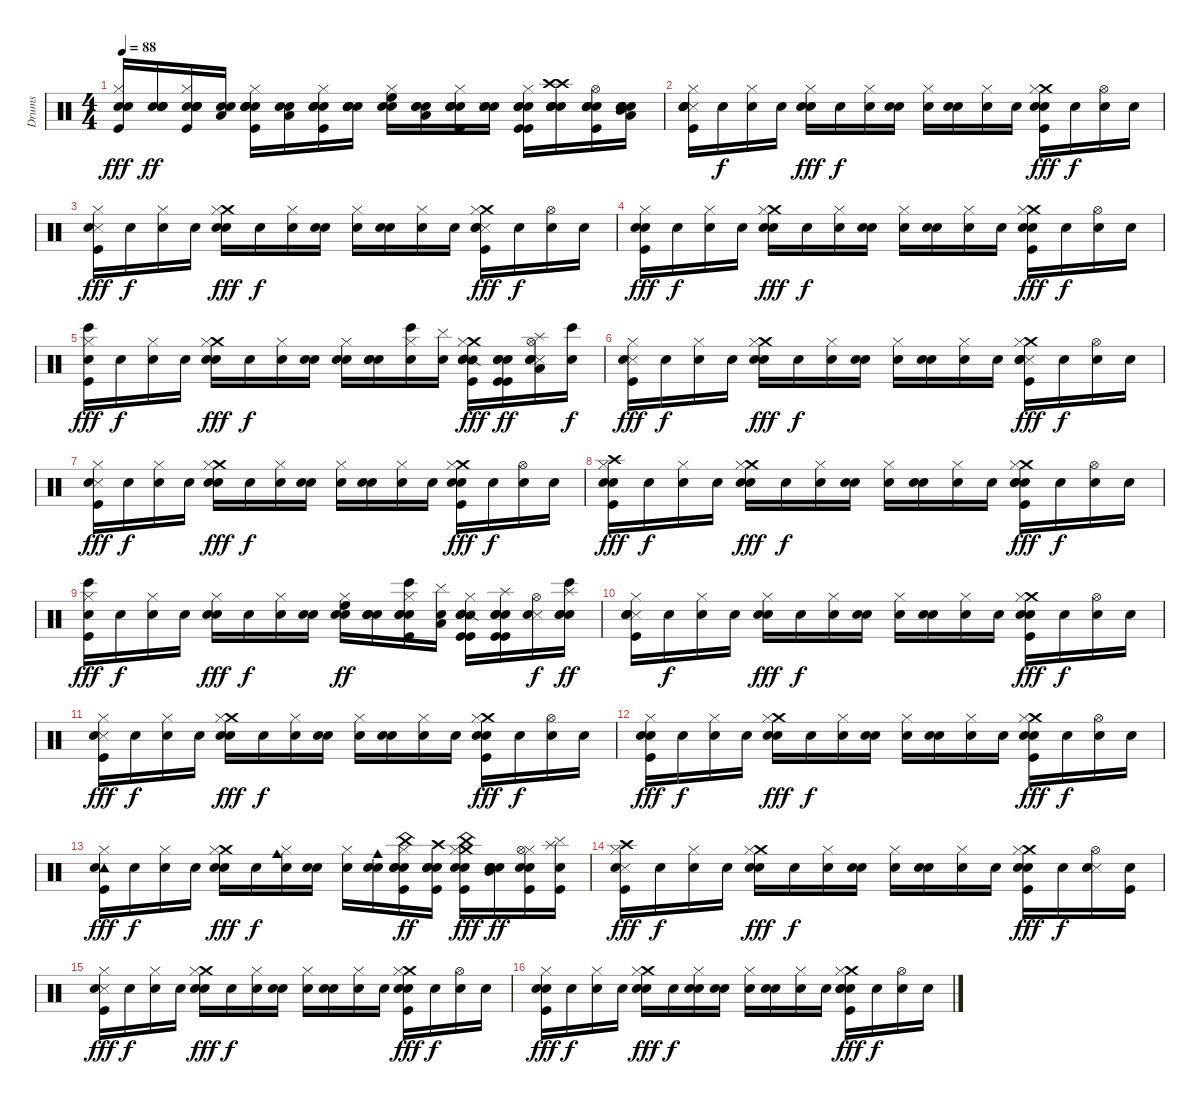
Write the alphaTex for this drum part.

\track ("Drums" "Drums") {instrument percussion}
\staff {score}
\articulation defaults
\ts (4 4)
\tempo 88
\clef neutral
\ks c
("Snare (hit) 2" "Snare (hit) 2" "Hi-Hat (closed)" "Kick (hit)").16{dy fff} ("Snare (hit) 2" "Snare (hit) 2" "Snare (hit) 2" "Electric Snare (hit)").16{dy ff} ("Snare (hit) 2" "Snare (hit) 2" "Hi-Hat (closed)" "Kick (hit)" "Snare (hit) 2" "Electric Snare (hit)").16 ("Snare (hit) 2" "Snare (hit) 2" "Low Tom (hit)").16 ("Snare (hit) 2" "Snare (hit) 2" "Hand Clap (hit)" "Hi-Hat (closed)" "Kick (hit)" "Snare (hit) 2").16 ("Snare (hit) 2" "Snare (hit) 2" "Low Tom (hit)").16 ("Snare (hit) 2" "Snare (hit) 2" "Hi-Hat (closed)" "Kick (hit)" "Snare (hit) 2" "Electric Snare (hit)").16 ("Snare (hit) 2" "Snare (hit) 2" "Hand Clap (hit)" "Snare (hit) 2" "Electric Snare (hit)").16 ("Snare (hit) 2" "Snare (hit) 2" "High Floor Tom (hit)" "Hi-Hat (closed)").16 ("Snare (hit) 2" "Snare (hit) 2" "Hand Clap (hit)" "Low Tom (hit)").16 ("Snare (hit) 2" "Snare (hit) 2" "Hi-Hat (closed)" "Kick (hit)" "Snare (hit) 2" "Electric Snare (hit)").16 ("Snare (hit) 2" "Snare (hit) 2" "Snare (side stick) 3" "Snare (hit) 2").16 ("Snare (hit) 2" "Snare (hit) 2" "Electric Snare (hit)" "Hi-Hat (closed)" "Kick (hit)" "Kick (hit)").16 ("Snare (hit) 2" "Snare (hit) 2" "Snare (hit) 2" "Electric Snare (hit)" "Crash high (hit)" "Crash high (hit)").16 ("Snare (hit) 2" "Snare (hit) 2" "Hi-Hat (open)" "Kick (hit)" "Snare (hit) 2" "Electric Snare (hit)").16 ("Snare (hit) 2" "Snare (hit) 2" "Snare (hit) 2" "Electric Snare (hit)" "Mid Tom (hit)" "Low Tom (hit)").16 |
("Metronome (hit)" "Snare (hit) 2" "Hi-Hat (closed)" "Kick (hit)" "Snare (hit) 2" "Electric Snare (hit)").16{volume 12} "Snare (hit) 2".16{dy f} ("Snare (hit) 2" "Hi-Hat (closed)").16 "Snare (hit) 2".16 ("Snare (hit) 2" "Hand Clap (hit)" "Hi-Hat (closed)").16{dy fff} "Snare (hit) 2".16{dy f} ("Snare (hit) 2" "Hi-Hat (closed)").16 ("Snare (hit) 2" "Hand Clap (hit)").16 ("Snare (hit) 2" "Hi-Hat (closed)").16 ("Snare (hit) 2" "Hand Clap (hit)").16 ("Snare (hit) 2" "Hi-Hat (closed)").16 "Snare (hit) 2".16 ("Snare (hit) 2" "Electric Snare (hit)" "Crash medium (hit)" "Hi-Hat (closed)" "Kick (hit)").16{dy fff} "Snare (hit) 2".16{dy f} ("Snare (hit) 2" "Hi-Hat (open)").16 "Snare (hit) 2".16 |
("Snare (side stick) 3" "Snare (hit) 2" "Hi-Hat (closed)" "Kick (hit)").16{dy fff} "Snare (hit) 2".16{dy f} ("Snare (hit) 2" "Hi-Hat (closed)").16 "Snare (hit) 2".16 ("Snare (hit) 2" "Hand Clap (hit)" "Crash medium (hit)" "Hi-Hat (closed)").16{dy fff} "Snare (hit) 2".16{dy f} ("Snare (hit) 2" "Hi-Hat (closed)").16 ("Snare (hit) 2" "Hand Clap (hit)").16 ("Snare (hit) 2" "Hi-Hat (closed)").16 ("Snare (hit) 2" "Hand Clap (hit)").16 ("Snare (hit) 2" "Hi-Hat (closed)").16 "Snare (hit) 2".16 ("Snare (side stick) 3" "Snare (hit) 2" "Electric Snare (hit)" "Crash medium (hit)" "Hi-Hat (closed)" "Kick (hit)").16{dy fff} "Snare (hit) 2".16{dy f} ("Snare (hit) 2" "Hi-Hat (open)").16 "Snare (hit) 2".16 |
("Snare (hit) 2" "Snare (hit) 2" "Hi-Hat (closed)" "Kick (hit)").16{dy fff} "Snare (hit) 2".16{dy f} ("Snare (hit) 2" "Hi-Hat (closed)").16 "Snare (hit) 2".16 ("Snare (hit) 2" "Hand Clap (hit)" "Crash medium (hit)" "Hi-Hat (closed)").16{dy fff} "Snare (hit) 2".16{dy f} ("Snare (hit) 2" "Hi-Hat (closed)").16 ("Snare (hit) 2" "Hand Clap (hit)").16 ("Snare (hit) 2" "Hi-Hat (closed)").16 ("Snare (hit) 2" "Hand Clap (hit)").16 ("Snare (hit) 2" "Hi-Hat (closed)").16 "Snare (hit) 2".16 ("Snare (hit) 2" "Electric Snare (hit)" "Crash medium (hit)" "Hi-Hat (closed)" "Kick (hit)").16{dy fff} "Snare (hit) 2".16{dy f} ("Snare (hit) 2" "Hi-Hat (open)").16 "Snare (hit) 2".16 |
("Bongo High (hit)" "Snare (hit) 2" "Hi-Hat (closed)" "Kick (hit)").16{dy fff} "Snare (hit) 2".16{dy f} ("Snare (hit) 2" "Hi-Hat (closed)").16 "Snare (hit) 2".16 ("Snare (hit) 2" "Hand Clap (hit)" "Crash medium (hit)" "Hi-Hat (closed)").16{dy fff} "Snare (hit) 2".16{dy f} ("Snare (hit) 2" "Hi-Hat (closed)").16 ("Snare (hit) 2" "Hand Clap (hit)").16 ("Snare (hit)" "Snare (hit) 2" "Hi-Hat (closed)").16 ("Snare (hit)" "Snare (hit) 2" "Hand Clap (hit)").16 ("Bongo High (hit)" "Snare (hit) 2" "Hi-Hat (closed)").16 ("Cymbal (hit)" "Snare (hit) 2").16 ("Snare (side stick) 2" "Snare (hit) 2" "Electric Snare (hit)" "Crash medium (hit)" "Hi-Hat (closed)" "Kick (hit)").16{dy fff} ("Kick (hit)" "Snare (hit) 2" "Kick (hit)" "Snare (hit) 2" "Electric Snare (hit)").16{dy ff} ("Metronome (hit)" "Snare (hit) 2" "Hi-Hat (open)" "Snare (hit) 2" "Low Tom (hit)" "Splash (hit)").16 ("Bongo High (hit)" "Snare (hit) 2").16{dy f} |
("Metronome (hit)" "Snare (hit) 2" "Hi-Hat (closed)" "Kick (hit)").16{dy fff} "Snare (hit) 2".16{dy f} ("Snare (hit) 2" "Hi-Hat (closed)").16 "Snare (hit) 2".16 ("Snare (hit) 2" "Hand Clap (hit)" "Crash medium (hit)" "Hi-Hat (closed)").16{dy fff} "Snare (hit) 2".16{dy f} ("Snare (hit) 2" "Hi-Hat (closed)").16 ("Snare (hit) 2" "Hand Clap (hit)").16 ("Snare (hit) 2" "Hi-Hat (closed)").16 ("Snare (hit) 2" "Hand Clap (hit)").16 ("Snare (hit) 2" "Hi-Hat (closed)").16 "Snare (hit) 2".16 ("Metronome (hit)" "Snare (hit) 2" "Electric Snare (hit)" "Crash medium (hit)" "Hi-Hat (closed)" "Kick (hit)").16{dy fff} "Snare (hit) 2".16{dy f} ("Snare (hit) 2" "Hi-Hat (open)").16 "Snare (hit) 2".16 |
("Snare (side stick) 3" "Snare (hit) 2" "Hi-Hat (closed)" "Kick (hit)").16{dy fff} "Snare (hit) 2".16{dy f} ("Snare (hit) 2" "Hi-Hat (closed)").16 "Snare (hit) 2".16 ("Snare (hit) 2" "Hand Clap (hit)" "Crash medium (hit)" "Hi-Hat (closed)").16{dy fff} "Snare (hit) 2".16{dy f} ("Snare (hit) 2" "Hi-Hat (closed)").16 ("Snare (hit) 2" "Hand Clap (hit)").16 ("Snare (hit) 2" "Hi-Hat (closed)").16 ("Snare (hit) 2" "Hand Clap (hit)").16 ("Snare (hit) 2" "Hi-Hat (closed)").16 "Snare (hit) 2".16 ("Snare (hit) 2" "Electric Snare (hit)" "Crash medium (hit)" "Hi-Hat (closed)" "Kick (hit)").16{dy fff} "Snare (hit) 2".16{dy f} ("Snare (hit) 2" "Hi-Hat (open)").16 "Snare (hit) 2".16 |
("Snare (hit) 2" "Snare (hit) 2" "Hi-Hat (closed)" "Kick (hit)" "Crash high (hit)").16{dy fff} "Snare (hit) 2".16{dy f} ("Snare (hit) 2" "Hi-Hat (closed)").16 "Snare (hit) 2".16 ("Snare (hit) 2" "Hand Clap (hit)" "Crash medium (hit)" "Hi-Hat (closed)").16{dy fff} "Snare (hit) 2".16{dy f} ("Snare (hit) 2" "Hi-Hat (closed)").16 ("Snare (hit) 2" "Hand Clap (hit)").16 ("Snare (hit) 2" "Hi-Hat (closed)").16 ("Snare (hit) 2" "Hand Clap (hit)").16 ("Snare (hit) 2" "Hi-Hat (closed)").16 "Snare (hit) 2".16 ("Snare (hit) 2" "Snare (hit) 2" "Electric Snare (hit)" "Crash medium (hit)" "Hi-Hat (closed)" "Kick (hit)").16{dy fff} "Snare (hit) 2".16{dy f} ("Snare (hit) 2" "Hi-Hat (open)").16 "Snare (hit) 2".16 |
("Bongo High (hit)" "Snare (hit) 2" "Hi-Hat (closed)" "Kick (hit)").16{dy fff} "Snare (hit) 2".16{dy f} ("Snare (hit) 2" "Hi-Hat (closed)").16 "Snare (hit) 2".16 ("Snare (hit) 2" "Hand Clap (hit)" "Hi-Hat (closed)").16{dy fff} "Snare (hit) 2".16{dy f} ("Snare (hit) 2" "Hi-Hat (closed)").16 ("Snare (hit) 2" "Hand Clap (hit)").16 ("Snare (hit)" "Snare (hit) 2" "High Floor Tom (hit)" "Hi-Hat (closed)").16{dy ff} ("Snare (hit)" "Snare (hit) 2" "Hand Clap (hit)" "Electric Snare (hit)").16 ("Bongo High (hit)" "Snare (hit) 2" "Hi-Hat (closed)" "Kick (hit)" "Snare (hit) 2" "Electric Snare (hit)").16 ("Cymbal (hit)" "Snare (hit) 2" "Low Tom (hit)").16 ("Snare (side stick) 2" "Snare (hit) 2" "Electric Snare (hit)" "Hi-Hat (closed)" "Kick (hit)" "Kick (hit)").16 ("Kick (hit)" "Snare (hit) 2" "Kick (hit)" "Snare (hit) 2" "Electric Snare (hit)" "Splash (hit)").16 ("Metronome (hit)" "Snare (hit) 2" "Hi-Hat (open)").16{dy f} ("Bongo High (hit)" "Snare (hit) 2" "Snare (hit) 2" "Electric Snare (hit)" "Splash (hit)").16{dy ff} |
("Metronome (hit)" "Snare (hit) 2" "Hi-Hat (closed)" "Kick (hit)" "Snare (hit) 2" "Electric Snare (hit)").16 "Snare (hit) 2".16{dy f} ("Snare (hit) 2" "Hi-Hat (closed)").16 "Snare (hit) 2".16 ("Snare (hit) 2" "Hand Clap (hit)" "Hi-Hat (closed)").16{dy fff} "Snare (hit) 2".16{dy f} ("Snare (hit) 2" "Hi-Hat (closed)").16 ("Snare (hit) 2" "Hand Clap (hit)").16 ("Snare (hit) 2" "Hi-Hat (closed)").16 ("Snare (hit) 2" "Hand Clap (hit)").16 ("Snare (hit) 2" "Hi-Hat (closed)").16 "Snare (hit) 2".16 ("Snare (hit) 2" "Electric Snare (hit)" "Crash medium (hit)" "Hi-Hat (closed)" "Kick (hit)").16{dy fff} "Snare (hit) 2".16{dy f} ("Snare (hit) 2" "Hi-Hat (open)").16 "Snare (hit) 2".16 |
("Snare (side stick) 3" "Snare (hit) 2" "Hi-Hat (closed)" "Kick (hit)").16{dy fff} "Snare (hit) 2".16{dy f} ("Snare (hit) 2" "Hi-Hat (closed)").16 "Snare (hit) 2".16 ("Snare (hit) 2" "Hand Clap (hit)" "Crash medium (hit)" "Hi-Hat (closed)").16{dy fff} "Snare (hit) 2".16{dy f} ("Snare (hit) 2" "Hi-Hat (closed)").16 ("Snare (hit) 2" "Hand Clap (hit)").16 ("Snare (hit) 2" "Hi-Hat (closed)").16 ("Snare (hit) 2" "Hand Clap (hit)").16 ("Snare (hit) 2" "Hi-Hat (closed)").16 "Snare (hit) 2".16 ("Snare (hit) 2" "Electric Snare (hit)" "Crash medium (hit)" "Hi-Hat (closed)" "Kick (hit)").16{dy fff} "Snare (hit) 2".16{dy f} ("Snare (hit) 2" "Hi-Hat (open)").16 "Snare (hit) 2".16 |
("Snare (hit) 2" "Snare (hit) 2" "Hi-Hat (closed)" "Kick (hit)").16{dy fff} "Snare (hit) 2".16{dy f} ("Snare (hit) 2" "Hi-Hat (closed)").16 "Snare (hit) 2".16 ("Snare (hit) 2" "Hand Clap (hit)" "Crash medium (hit)" "Hi-Hat (closed)").16{dy fff} "Snare (hit) 2".16{dy f} ("Snare (hit) 2" "Hi-Hat (closed)").16 ("Snare (hit) 2" "Hand Clap (hit)").16 ("Snare (hit) 2" "Hi-Hat (closed)").16 ("Snare (hit) 2" "Hand Clap (hit)").16 ("Snare (hit) 2" "Hi-Hat (closed)").16 "Snare (hit) 2".16 ("Snare (hit) 2" "Electric Snare (hit)" "Crash medium (hit)" "Hi-Hat (closed)" "Kick (hit)").16{dy fff} "Snare (hit) 2".16{dy f} ("Snare (hit) 2" "Hi-Hat (open)").16 "Snare (hit) 2".16 |
("Tambourine (hit)" "Snare (hit) 2" "Hi-Hat (closed)" "Kick (hit)").16{dy fff} "Snare (hit) 2".16{dy f} ("Snare (hit) 2" "Hi-Hat (closed)").16 "Snare (hit) 2".16 ("Snare (hit) 2" "Hand Clap (hit)" "Crash medium (hit)" "Hi-Hat (closed)").16{dy fff} "Snare (hit) 2".16{dy f} ("Cowbell medium (hit)" "Snare (hit) 2" "Hi-Hat (closed)").16 ("Snare (hit) 2" "Hand Clap (hit)").16 ("Snare (hit) 2" "Hi-Hat (closed)").16 ("Cowbell medium (hit)" "Snare (hit) 2" "Hand Clap (hit)").16 ("China (hit)" "Snare (hit) 2" "Hi-Hat (closed)" "Kick (hit)" "Snare (hit) 2" "Electric Snare (hit)").16{dy ff} ("Crash high (hit)" "Snare (hit) 2" "Kick (hit)" "Snare (hit) 2" "Electric Snare (hit)").16 ("China (hit)" "Snare (hit) 2" "Electric Snare (hit)" "Crash medium (hit)" "Hi-Hat (closed)" "Kick (hit)").16{dy fff} ("Mid Tom (hit)" "Snare (hit) 2" "Snare (hit) 2" "Electric Snare (hit)").16{dy ff} ("Hi-Hat (closed)" "Snare (hit) 2" "Hi-Hat (open)" "Kick (hit)" "Snare (hit) 2").16 ("Cymbal (hit)" "Snare (hit) 2" "Kick (hit)" "Splash (hit)").16 |
("Metronome (hit)" "Snare (hit) 2" "Hi-Hat (closed)" "Kick (hit)" "Crash high (hit)").16{dy fff} "Snare (hit) 2".16{dy f} ("Snare (hit) 2" "Hi-Hat (closed)").16 "Snare (hit) 2".16 ("Snare (hit) 2" "Hand Clap (hit)" "Crash medium (hit)" "Hi-Hat (closed)").16{dy fff} "Snare (hit) 2".16{dy f} ("Snare (hit) 2" "Hi-Hat (closed)").16 ("Snare (hit) 2" "Hand Clap (hit)").16 ("Snare (hit) 2" "Hi-Hat (closed)").16 ("Snare (hit) 2" "Hand Clap (hit)").16 ("Snare (hit) 2" "Hi-Hat (closed)").16 "Snare (hit) 2".16 ("Snare (hit) 2" "Electric Snare (hit)" "Crash medium (hit)" "Hi-Hat (closed)" "Kick (hit)").16{dy fff} "Snare (hit) 2".16{dy f} ("Metronome (hit)" "Snare (hit) 2" "Hi-Hat (open)").16 ("Kick (hit)" "Snare (hit) 2").16 |
("Snare (side stick) 3" "Snare (hit) 2" "Hi-Hat (closed)" "Kick (hit)").16{dy fff} "Snare (hit) 2".16{dy f} ("Snare (hit) 2" "Hi-Hat (closed)").16 "Snare (hit) 2".16 ("Snare (hit) 2" "Hand Clap (hit)" "Crash medium (hit)" "Hi-Hat (closed)").16{dy fff} "Snare (hit) 2".16{dy f} ("Snare (hit) 2" "Hi-Hat (closed)").16 ("Snare (hit) 2" "Hand Clap (hit)").16 ("Snare (hit) 2" "Hi-Hat (closed)").16 ("Snare (hit) 2" "Hand Clap (hit)").16 ("Snare (hit) 2" "Hi-Hat (closed)").16 "Snare (hit) 2".16 ("Snare (hit) 2" "Electric Snare (hit)" "Crash medium (hit)" "Hi-Hat (closed)" "Kick (hit)").16{dy fff} "Snare (hit) 2".16{dy f} ("Snare (hit) 2" "Hi-Hat (open)").16 "Snare (hit) 2".16 |
("Snare (hit) 2" "Snare (hit) 2" "Hi-Hat (closed)" "Kick (hit)").16{dy fff} "Snare (hit) 2".16{dy f} ("Snare (hit) 2" "Hi-Hat (closed)").16 "Snare (hit) 2".16 ("Snare (hit) 2" "Hand Clap (hit)" "Crash medium (hit)" "Hi-Hat (closed)").16{dy fff} "Snare (hit) 2".16{dy f} ("Snare (hit) 2" "Snare (hit) 2" "Hi-Hat (closed)").16 ("Snare (hit) 2" "Hand Clap (hit)").16 ("Snare (hit) 2" "Hi-Hat (closed)").16 ("Snare (hit) 2" "Hand Clap (hit)").16 ("Snare (hit) 2" "Hi-Hat (closed)").16 "Snare (hit) 2".16 ("Snare (hit) 2" "Snare (hit) 2" "Electric Snare (hit)" "Crash medium (hit)" "Hi-Hat (closed)" "Kick (hit)").16{dy fff} "Snare (hit) 2".16{dy f} ("Snare (hit) 2" "Hi-Hat (open)").16 "Snare (hit) 2".16
